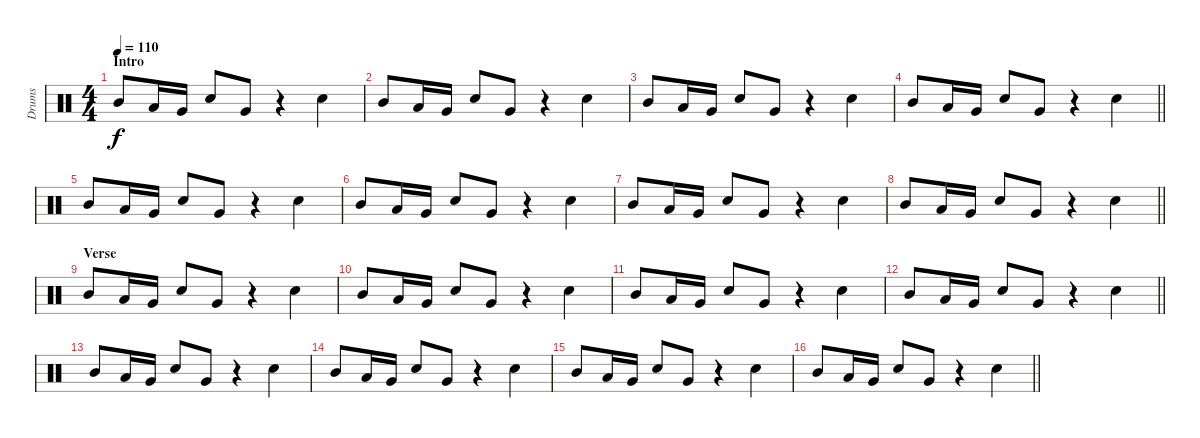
\track ("Drums" "Drums") {instrument percussion}
\staff {score}
\articulation defaults
\ts (4 4)
\section ("" "Intro")
\tempo 110
\clef neutral
\ks c "Mid Tom (hit)".8{dy f} "Low Tom (hit)".16 "Very Low Tom (hit)".16 "Snare (hit) 2".8 "Very Low Tom (hit)".8
r.4 "Snare (hit) 2".4 |
"Mid Tom (hit)".8 "Low Tom (hit)".16 "Very Low Tom (hit)".16 "Snare (hit) 2".8 "Very Low Tom (hit)".8 r.4 "Snare (hit) 2".4 |
"Mid Tom (hit)".8 "Low Tom (hit)".16 "Very Low Tom (hit)".16 "Snare (hit) 2".8 "Very Low Tom (hit)".8 r.4 "Snare (hit) 2".4 |
\barLineRight lightlight "Mid Tom (hit)".8 "Low Tom (hit)".16 "Very Low Tom (hit)".16 "Snare (hit) 2".8 "Very Low Tom (hit)".8
r.4 "Snare (hit) 2".4 |
"Mid Tom (hit)".8 "Low Tom (hit)".16 "Very Low Tom (hit)".16 "Snare (hit) 2".8 "Very Low Tom (hit)".8 r.4 "Snare (hit) 2".4 |
"Mid Tom (hit)".8 "Low Tom (hit)".16 "Very Low Tom (hit)".16 "Snare (hit) 2".8 "Very Low Tom (hit)".8 r.4 "Snare (hit) 2".4 |
"Mid Tom (hit)".8 "Low Tom (hit)".16 "Very Low Tom (hit)".16 "Snare (hit) 2".8 "Very Low Tom (hit)".8 r.4 "Snare (hit) 2".4 |
\barLineRight lightlight "Mid Tom (hit)".8 "Low Tom (hit)".16 "Very Low Tom (hit)".16 "Snare (hit) 2".8 "Very Low Tom (hit)".8
r.4 "Snare (hit) 2".4 |
\section ("" "Verse")
"Mid Tom (hit)".8 "Low Tom (hit)".16 "Very Low Tom (hit)".16 "Snare (hit) 2".8 "Very Low Tom (hit)".8 r.4 "Snare (hit) 2".4 |
"Mid Tom (hit)".8 "Low Tom (hit)".16 "Very Low Tom (hit)".16 "Snare (hit) 2".8 "Very Low Tom (hit)".8 r.4 "Snare (hit) 2".4 |
"Mid Tom (hit)".8 "Low Tom (hit)".16 "Very Low Tom (hit)".16 "Snare (hit) 2".8 "Very Low Tom (hit)".8 r.4 "Snare (hit) 2".4 |
\barLineRight lightlight "Mid Tom (hit)".8 "Low Tom (hit)".16 "Very Low Tom (hit)".16 "Snare (hit) 2".8 "Very Low Tom (hit)".8
r.4 "Snare (hit) 2".4 |
"Mid Tom (hit)".8 "Low Tom (hit)".16 "Very Low Tom (hit)".16 "Snare (hit) 2".8 "Very Low Tom (hit)".8 r.4 "Snare (hit) 2".4 |
"Mid Tom (hit)".8 "Low Tom (hit)".16 "Very Low Tom (hit)".16 "Snare (hit) 2".8 "Very Low Tom (hit)".8 r.4 "Snare (hit) 2".4 |
"Mid Tom (hit)".8 "Low Tom (hit)".16 "Very Low Tom (hit)".16 "Snare (hit) 2".8 "Very Low Tom (hit)".8 r.4 "Snare (hit) 2".4 |
\barLineRight lightlight "Mid Tom (hit)".8 "Low Tom (hit)".16 "Very Low Tom (hit)".16 "Snare (hit) 2".8 "Very Low Tom (hit)".8
r.4 "Snare (hit) 2".4
